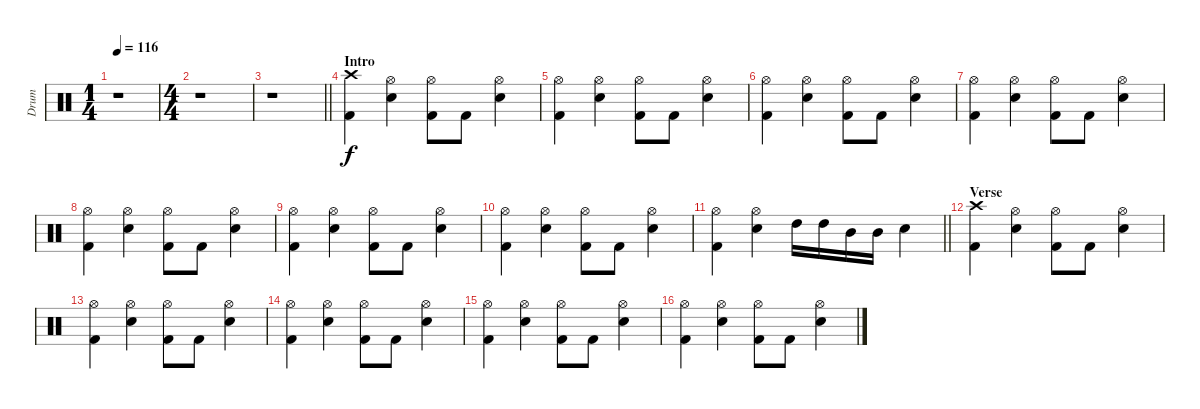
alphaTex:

\track ("Drum" "Drum") {instrument percussion}
\staff {score}
\articulation defaults
\ts (1 4)
\tempo 116
\clef neutral
\ks c
r.1{dy f} |
\ts (4 4)
r.1 |
\barLineRight lightlight
r.1 |
\section ("" "Intro")
("Crash high (hit)" "Kick (hit) 2").4 ("Hi-Hat (open)" "Electric Snare (hit)").4 ("Hi-Hat (open)" "Kick (hit) 2").8 "Kick (hit) 2".8 ("Hi-Hat (open)" "Electric Snare (hit)").4 |
("Hi-Hat (open)" "Kick (hit) 2").4 ("Hi-Hat (open)" "Electric Snare (hit)").4 ("Hi-Hat (open)" "Kick (hit) 2").8 "Kick (hit) 2".8 ("Hi-Hat (open)" "Electric Snare (hit)").4 |
("Hi-Hat (open)" "Kick (hit) 2").4 ("Hi-Hat (open)" "Electric Snare (hit)").4 ("Hi-Hat (open)" "Kick (hit) 2").8 "Kick (hit) 2".8 ("Hi-Hat (open)" "Electric Snare (hit)").4 |
("Hi-Hat (open)" "Kick (hit) 2").4 ("Hi-Hat (open)" "Electric Snare (hit)").4 ("Hi-Hat (open)" "Kick (hit) 2").8 "Kick (hit) 2".8 ("Hi-Hat (open)" "Electric Snare (hit)").4 |
("Hi-Hat (open)" "Kick (hit) 2").4 ("Hi-Hat (open)" "Electric Snare (hit)").4 ("Hi-Hat (open)" "Kick (hit) 2").8 "Kick (hit) 2".8 ("Hi-Hat (open)" "Electric Snare (hit)").4 |
("Hi-Hat (open)" "Kick (hit) 2").4 ("Hi-Hat (open)" "Electric Snare (hit)").4 ("Hi-Hat (open)" "Kick (hit) 2").8 "Kick (hit) 2".8 ("Hi-Hat (open)" "Electric Snare (hit)").4 |
("Hi-Hat (open)" "Kick (hit) 2").4 ("Hi-Hat (open)" "Electric Snare (hit)").4 ("Hi-Hat (open)" "Kick (hit) 2").8 "Kick (hit) 2".8 ("Hi-Hat (open)" "Electric Snare (hit)").4 |
\barLineRight lightlight
("Hi-Hat (open)" "Kick (hit) 2").4 ("Hi-Hat (open)" "Electric Snare (hit)").4 "High Tom (hit)".16 "High Tom (hit)".16 "Mid Tom (hit)".16 "Mid Tom (hit)".16 "Electric Snare (hit)".4 |
\section ("" "Verse")
("Crash high (hit)" "Kick (hit) 2").4 ("Hi-Hat (open)" "Electric Snare (hit)").4 ("Hi-Hat (open)" "Kick (hit) 2").8 "Kick (hit) 2".8 ("Hi-Hat (open)" "Electric Snare (hit)").4 |
("Hi-Hat (open)" "Kick (hit) 2").4 ("Hi-Hat (open)" "Electric Snare (hit)").4 ("Hi-Hat (open)" "Kick (hit) 2").8 "Kick (hit) 2".8 ("Hi-Hat (open)" "Electric Snare (hit)").4 |
("Hi-Hat (open)" "Kick (hit) 2").4 ("Hi-Hat (open)" "Electric Snare (hit)").4 ("Hi-Hat (open)" "Kick (hit) 2").8 "Kick (hit) 2".8 ("Hi-Hat (open)" "Electric Snare (hit)").4 |
("Hi-Hat (open)" "Kick (hit) 2").4 ("Hi-Hat (open)" "Electric Snare (hit)").4 ("Hi-Hat (open)" "Kick (hit) 2").8 "Kick (hit) 2".8 ("Hi-Hat (open)" "Electric Snare (hit)").4 |
("Hi-Hat (open)" "Kick (hit) 2").4 ("Hi-Hat (open)" "Electric Snare (hit)").4 ("Hi-Hat (open)" "Kick (hit) 2").8 "Kick (hit) 2".8 ("Hi-Hat (open)" "Electric Snare (hit)").4
